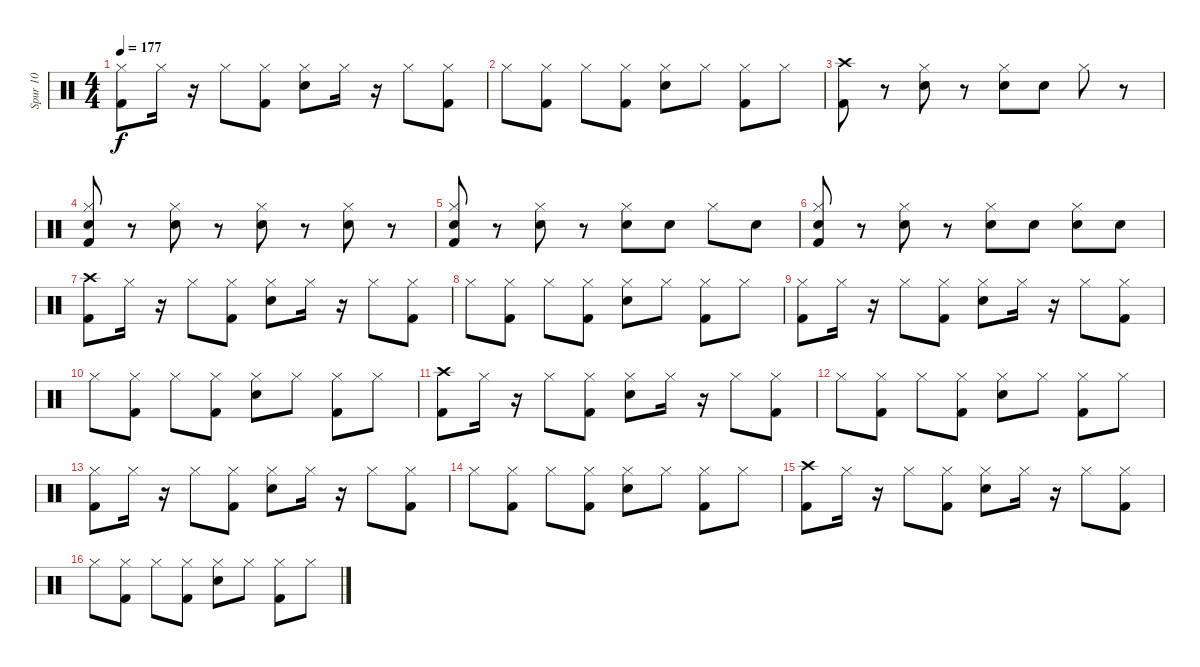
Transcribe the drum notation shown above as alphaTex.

\track ("Spur 10" "Spur 10") {instrument percussion}
\staff {score}
\articulation defaults
\ts (4 4)
\tempo 177
\clef neutral
\ks c
("Kick (hit) 2" "Hi-Hat (closed)").8{dy f} "Hi-Hat (closed)".16 r.16 "Hi-Hat (closed)".8 ("Hi-Hat (closed)" "Kick (hit) 2").8 ("Electric Snare (hit)" "Hi-Hat (closed)").8 "Hi-Hat (closed)".16 r.16 "Hi-Hat (closed)".8 ("Kick (hit) 2" "Hi-Hat (closed)").8 |
"Hi-Hat (closed)".8 ("Kick (hit) 2" "Hi-Hat (closed)").8 "Hi-Hat (closed)".8 ("Hi-Hat (closed)" "Kick (hit) 2").8 ("Hi-Hat (closed)" "Electric Snare (hit)").8 "Hi-Hat (closed)".8 ("Kick (hit) 2" "Hi-Hat (closed)").8 "Hi-Hat (closed)".8 |
("Crash high (hit)" "Kick (hit) 2").8 r.8 ("Electric Snare (hit)" "Hi-Hat (closed)").8 r.8 ("Electric Snare (hit)" "Hi-Hat (closed)").8 "Electric Snare (hit)".8 "Hi-Hat (closed)".8 r.8 |
("Electric Snare (hit)" "Hi-Hat (closed)" "Kick (hit) 2").8 r.8 ("Electric Snare (hit)" "Hi-Hat (closed)").8 r.8 ("Hi-Hat (closed)" "Electric Snare (hit)").8 r.8 ("Hi-Hat (closed)" "Electric Snare (hit)").8 r.8 |
("Kick (hit) 2" "Hi-Hat (closed)" "Electric Snare (hit)").8 r.8 ("Hi-Hat (closed)" "Electric Snare (hit)").8 r.8 ("Hi-Hat (closed)" "Electric Snare (hit)").8 "Electric Snare (hit)".8 "Hi-Hat (closed)".8 "Electric Snare (hit)".8 |
("Kick (hit) 2" "Electric Snare (hit)" "Hi-Hat (closed)").8 r.8 ("Electric Snare (hit)" "Hi-Hat (closed)").8 r.8 ("Hi-Hat (closed)" "Electric Snare (hit)").8 "Electric Snare (hit)".8 ("Hi-Hat (closed)" "Electric Snare (hit)").8 "Electric Snare (hit)".8 |
("Crash high (hit)" "Kick (hit) 2").8 "Hi-Hat (closed)".16 r.16 "Hi-Hat (closed)".8 ("Kick (hit) 2" "Hi-Hat (closed)").8 ("Hi-Hat (closed)" "Electric Snare (hit)").8 "Hi-Hat (closed)".16 r.16 "Hi-Hat (closed)".8 ("Kick (hit) 2" "Hi-Hat (closed)").8 |
"Hi-Hat (closed)".8 ("Kick (hit) 2" "Hi-Hat (closed)").8 "Hi-Hat (closed)".8 ("Hi-Hat (closed)" "Kick (hit) 2").8 ("Hi-Hat (closed)" "Electric Snare (hit)").8 "Hi-Hat (closed)".8 ("Kick (hit) 2" "Hi-Hat (closed)").8 "Hi-Hat (closed)".8 |
("Kick (hit) 2" "Hi-Hat (closed)").8 "Hi-Hat (closed)".16 r.16 "Hi-Hat (closed)".8 ("Hi-Hat (closed)" "Kick (hit) 2").8 ("Electric Snare (hit)" "Hi-Hat (closed)").8 "Hi-Hat (closed)".16 r.16 "Hi-Hat (closed)".8 ("Kick (hit) 2" "Hi-Hat (closed)").8 |
"Hi-Hat (closed)".8 ("Kick (hit) 2" "Hi-Hat (closed)").8 "Hi-Hat (closed)".8 ("Hi-Hat (closed)" "Kick (hit) 2").8 ("Hi-Hat (closed)" "Electric Snare (hit)").8 "Hi-Hat (closed)".8 ("Kick (hit) 2" "Hi-Hat (closed)").8 "Hi-Hat (closed)".8 |
("Crash high (hit)" "Kick (hit) 2").8 "Hi-Hat (closed)".16 r.16 "Hi-Hat (closed)".8 ("Kick (hit) 2" "Hi-Hat (closed)").8 ("Hi-Hat (closed)" "Electric Snare (hit)").8 "Hi-Hat (closed)".16 r.16 "Hi-Hat (closed)".8 ("Kick (hit) 2" "Hi-Hat (closed)").8 |
"Hi-Hat (closed)".8 ("Kick (hit) 2" "Hi-Hat (closed)").8 "Hi-Hat (closed)".8 ("Hi-Hat (closed)" "Kick (hit) 2").8 ("Hi-Hat (closed)" "Electric Snare (hit)").8 "Hi-Hat (closed)".8 ("Kick (hit) 2" "Hi-Hat (closed)").8 "Hi-Hat (closed)".8 |
("Kick (hit) 2" "Hi-Hat (closed)").8 "Hi-Hat (closed)".16 r.16 "Hi-Hat (closed)".8 ("Hi-Hat (closed)" "Kick (hit) 2").8 ("Electric Snare (hit)" "Hi-Hat (closed)").8 "Hi-Hat (closed)".16 r.16 "Hi-Hat (closed)".8 ("Kick (hit) 2" "Hi-Hat (closed)").8 |
"Hi-Hat (closed)".8 ("Kick (hit) 2" "Hi-Hat (closed)").8 "Hi-Hat (closed)".8 ("Hi-Hat (closed)" "Kick (hit) 2").8 ("Hi-Hat (closed)" "Electric Snare (hit)").8 "Hi-Hat (closed)".8 ("Kick (hit) 2" "Hi-Hat (closed)").8 "Hi-Hat (closed)".8 |
("Crash high (hit)" "Kick (hit) 2").8 "Hi-Hat (closed)".16 r.16 "Hi-Hat (closed)".8 ("Kick (hit) 2" "Hi-Hat (closed)").8 ("Hi-Hat (closed)" "Electric Snare (hit)").8 "Hi-Hat (closed)".16 r.16 "Hi-Hat (closed)".8 ("Kick (hit) 2" "Hi-Hat (closed)").8 |
"Hi-Hat (closed)".8 ("Kick (hit) 2" "Hi-Hat (closed)").8 "Hi-Hat (closed)".8 ("Hi-Hat (closed)" "Kick (hit) 2").8 ("Hi-Hat (closed)" "Electric Snare (hit)").8 "Hi-Hat (closed)".8 ("Kick (hit) 2" "Hi-Hat (closed)").8 "Hi-Hat (closed)".8
